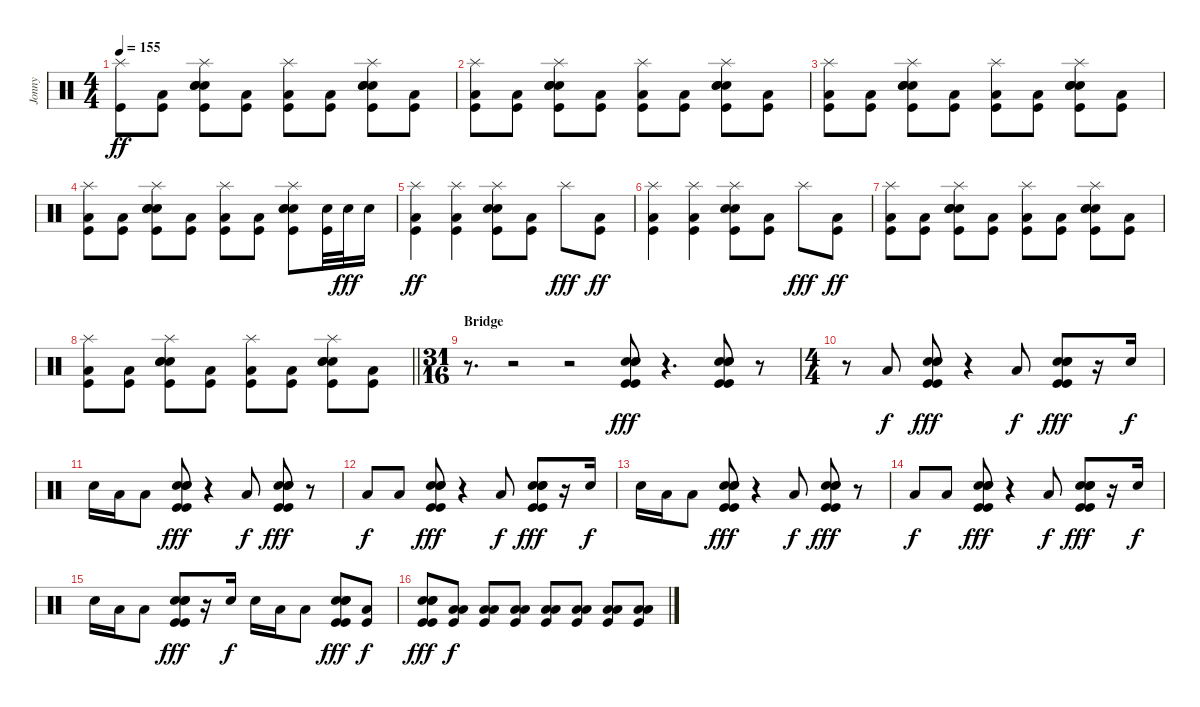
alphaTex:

\track ("Jonny" "Jonny") {instrument percussion}
\staff {score}
\articulation defaults
\ts (4 4)
\tempo 155
\clef neutral
\ks c
("Splash (hit)" "Kick (hit)").8{dy ff} ("Low Floor Tom (hit)" "Kick (hit)").8 ("Splash (hit)" "Electric Snare (hit)" "Electric Snare (hit)" "Electric Snare (hit)" "Kick (hit)").8 ("Low Floor Tom (hit)" "Kick (hit)").8 ("Splash (hit)" "Low Floor Tom (hit)" "Kick (hit)").8 ("Low Floor Tom (hit)" "Kick (hit)").8 ("Splash (hit)" "Electric Snare (hit)" "Electric Snare (hit)" "Electric Snare (hit)" "Kick (hit)").8 ("Low Floor Tom (hit)" "Kick (hit)").8 |
("Splash (hit)" "Low Floor Tom (hit)" "Kick (hit)").8 ("Low Floor Tom (hit)" "Kick (hit)").8 ("Splash (hit)" "Electric Snare (hit)" "Electric Snare (hit)" "Electric Snare (hit)" "Kick (hit)").8 ("Low Floor Tom (hit)" "Kick (hit)").8 ("Splash (hit)" "Low Floor Tom (hit)" "Kick (hit)").8 ("Low Floor Tom (hit)" "Kick (hit)").8 ("Splash (hit)" "Electric Snare (hit)" "Electric Snare (hit)" "Electric Snare (hit)" "Kick (hit)").8 ("Low Floor Tom (hit)" "Kick (hit)").8 |
("Splash (hit)" "Low Floor Tom (hit)" "Kick (hit)").8 ("Low Floor Tom (hit)" "Kick (hit)").8 ("Splash (hit)" "Electric Snare (hit)" "Electric Snare (hit)" "Electric Snare (hit)" "Kick (hit)").8 ("Low Floor Tom (hit)" "Kick (hit)").8 ("Splash (hit)" "Low Floor Tom (hit)" "Kick (hit)").8 ("Low Floor Tom (hit)" "Kick (hit)").8 ("Splash (hit)" "Electric Snare (hit)" "Electric Snare (hit)" "Electric Snare (hit)" "Kick (hit)").8 ("Low Floor Tom (hit)" "Kick (hit)").8 |
("Splash (hit)" "Low Floor Tom (hit)" "Kick (hit)").8 ("Low Floor Tom (hit)" "Kick (hit)").8 ("Splash (hit)" "Electric Snare (hit)" "Electric Snare (hit)" "Electric Snare (hit)" "Kick (hit)").8 ("Low Floor Tom (hit)" "Kick (hit)").8 ("Splash (hit)" "Low Floor Tom (hit)" "Kick (hit)").8 ("Low Floor Tom (hit)" "Kick (hit)").8 ("Splash (hit)" "Electric Snare (hit)" "Electric Snare (hit)" "Electric Snare (hit)" "Kick (hit)").8 ("Electric Snare (hit)" "Kick (hit)").32 "Electric Snare (hit)".32{dy fff} "Electric Snare (hit)".16 |
("Splash (hit)" "Low Floor Tom (hit)" "Kick (hit)").4{dy ff} ("Splash (hit)" "Low Floor Tom (hit)" "Kick (hit)").4 ("Splash (hit)" "Electric Snare (hit)" "Electric Snare (hit)" "Kick (hit)").8 ("Low Floor Tom (hit)" "Kick (hit)").8 "Splash (hit)".8{dy fff} ("Low Floor Tom (hit)" "Kick (hit)").8{dy ff} |
("Splash (hit)" "Low Floor Tom (hit)" "Kick (hit)").4 ("Splash (hit)" "Low Floor Tom (hit)" "Kick (hit)").4 ("Splash (hit)" "Electric Snare (hit)" "Electric Snare (hit)" "Kick (hit)").8 ("Low Floor Tom (hit)" "Kick (hit)").8 "Splash (hit)".8{dy fff} ("Low Floor Tom (hit)" "Kick (hit)").8{dy ff} |
("Splash (hit)" "Low Floor Tom (hit)" "Kick (hit)").8 ("Low Floor Tom (hit)" "Kick (hit)").8 ("Splash (hit)" "Electric Snare (hit)" "Electric Snare (hit)" "Electric Snare (hit)" "Kick (hit)").8 ("Low Floor Tom (hit)" "Kick (hit)").8 ("Splash (hit)" "Low Floor Tom (hit)" "Kick (hit)").8 ("Low Floor Tom (hit)" "Kick (hit)").8 ("Splash (hit)" "Electric Snare (hit)" "Electric Snare (hit)" "Electric Snare (hit)" "Kick (hit)").8 ("Low Floor Tom (hit)" "Kick (hit)").8 |
\barLineRight lightlight
("Splash (hit)" "Low Floor Tom (hit)" "Kick (hit)").8 ("Low Floor Tom (hit)" "Kick (hit)").8 ("Splash (hit)" "Electric Snare (hit)" "Electric Snare (hit)" "Electric Snare (hit)" "Kick (hit)").8 ("Low Floor Tom (hit)" "Kick (hit)").8 ("Splash (hit)" "Low Floor Tom (hit)" "Kick (hit)").8 ("Low Floor Tom (hit)" "Kick (hit)").8 ("Splash (hit)" "Electric Snare (hit)" "Electric Snare (hit)" "Electric Snare (hit)" "Kick (hit)").8 ("Low Floor Tom (hit)" "Kick (hit)").8 |
\ts (31 16)
\section ("" "Bridge")
r.8{d} r.2 r.2 ("Electric Snare (hit)" "Electric Snare (hit)" "Electric Snare (hit)" "Kick (hit)" "Kick (hit)").8{dy fff} r.4{d} ("Electric Snare (hit)" "Electric Snare (hit)" "Electric Snare (hit)" "Kick (hit)" "Kick (hit)").8 r.8 |
\ts (4 4)
r.8 "Low Floor Tom (hit)".8{dy f} ("Electric Snare (hit)" "Electric Snare (hit)" "Electric Snare (hit)" "Kick (hit)" "Kick (hit)").8{dy fff} r.4 "Low Floor Tom (hit)".8{dy f} ("Electric Snare (hit)" "Electric Snare (hit)" "Electric Snare (hit)" "Kick (hit)" "Kick (hit)").8{dy fff} r.16 "Electric Snare (hit)".16{dy f} |
"Electric Snare (hit)".16 "Low Floor Tom (hit)".16 "Low Floor Tom (hit)".8 ("Electric Snare (hit)" "Electric Snare (hit)" "Electric Snare (hit)" "Kick (hit)" "Kick (hit)").8{dy fff} r.4 "Low Floor Tom (hit)".8{dy f} ("Electric Snare (hit)" "Electric Snare (hit)" "Electric Snare (hit)" "Kick (hit)" "Kick (hit)").8{dy fff} r.8 |
"Low Floor Tom (hit)".8{dy f} "Low Floor Tom (hit)".8 ("Electric Snare (hit)" "Electric Snare (hit)" "Electric Snare (hit)" "Kick (hit)" "Kick (hit)").8{dy fff} r.4 "Low Floor Tom (hit)".8{dy f} ("Electric Snare (hit)" "Electric Snare (hit)" "Electric Snare (hit)" "Kick (hit)" "Kick (hit)").8{dy fff} r.16 "Electric Snare (hit)".16{dy f} |
"Electric Snare (hit)".16 "Low Floor Tom (hit)".16 "Low Floor Tom (hit)".8 ("Electric Snare (hit)" "Electric Snare (hit)" "Electric Snare (hit)" "Kick (hit)" "Kick (hit)").8{dy fff} r.4 "Low Floor Tom (hit)".8{dy f} ("Electric Snare (hit)" "Electric Snare (hit)" "Electric Snare (hit)" "Kick (hit)" "Kick (hit)").8{dy fff} r.8 |
"Low Floor Tom (hit)".8{dy f} "Low Floor Tom (hit)".8 ("Electric Snare (hit)" "Electric Snare (hit)" "Electric Snare (hit)" "Kick (hit)" "Kick (hit)").8{dy fff} r.4 "Low Floor Tom (hit)".8{dy f} ("Electric Snare (hit)" "Electric Snare (hit)" "Electric Snare (hit)" "Kick (hit)" "Kick (hit)").8{dy fff} r.16 "Electric Snare (hit)".16{dy f} |
"Electric Snare (hit)".16 "Low Floor Tom (hit)".16 "Low Floor Tom (hit)".8 ("Electric Snare (hit)" "Electric Snare (hit)" "Electric Snare (hit)" "Kick (hit)" "Kick (hit)").8{dy fff} r.16 "Electric Snare (hit)".16{dy f} "Electric Snare (hit)".16 "Low Floor Tom (hit)".16 "Low Floor Tom (hit)".8 ("Electric Snare (hit)" "Electric Snare (hit)" "Electric Snare (hit)" "Kick (hit)" "Kick (hit)").8{dy fff} ("Low Floor Tom (hit)" "Kick (hit)").8{dy f} |
("Electric Snare (hit)" "Electric Snare (hit)" "Electric Snare (hit)" "Kick (hit)" "Kick (hit)").8{dy fff} ("Low Floor Tom (hit)" "Low Floor Tom (hit)" "Kick (hit)").8{dy f} ("Low Floor Tom (hit)" "Low Floor Tom (hit)" "Kick (hit)").8 ("Low Floor Tom (hit)" "Low Floor Tom (hit)" "Kick (hit)").8 ("Low Floor Tom (hit)" "Low Floor Tom (hit)" "Kick (hit)").8 ("Low Floor Tom (hit)" "Low Floor Tom (hit)" "Kick (hit)").8 ("Low Floor Tom (hit)" "Low Floor Tom (hit)" "Kick (hit)").8 ("Low Floor Tom (hit)" "Low Floor Tom (hit)" "Kick (hit)").8
